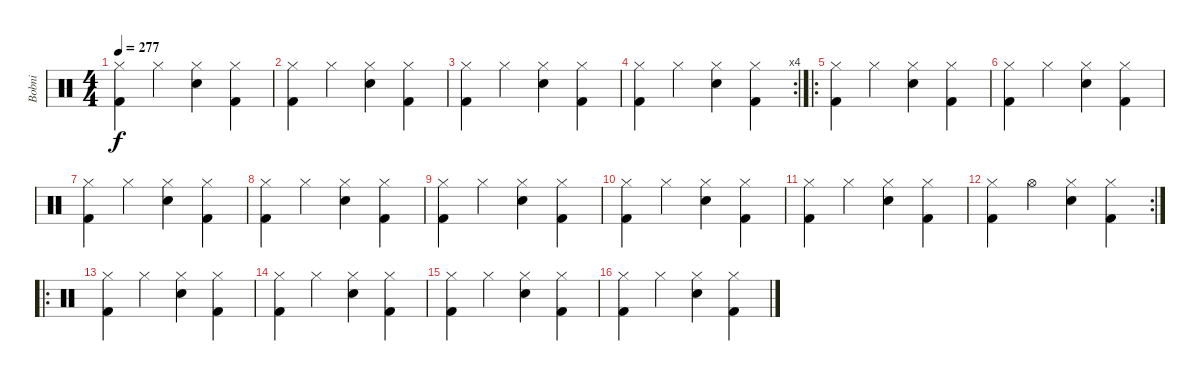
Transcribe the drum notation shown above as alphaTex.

\track ("Bobni" "Bobni") {instrument percussion}
\staff {score}
\articulation defaults
\ts (4 4)
\tempo 277
\clef neutral
\ks c
("Hi-Hat (closed)" "Kick (hit) 2").4{dy f} "Hi-Hat (closed)".4 ("Hi-Hat (closed)" "Snare (hit) 2").4 ("Hi-Hat (closed)" "Kick (hit) 2").4 |
("Hi-Hat (closed)" "Kick (hit) 2").4 "Hi-Hat (closed)".4 ("Hi-Hat (closed)" "Snare (hit) 2").4 ("Hi-Hat (closed)" "Kick (hit) 2").4 |
("Hi-Hat (closed)" "Kick (hit) 2").4 "Hi-Hat (closed)".4 ("Hi-Hat (closed)" "Snare (hit) 2").4 ("Hi-Hat (closed)" "Kick (hit) 2").4 |
\rc 4
("Hi-Hat (closed)" "Kick (hit) 2").4 "Hi-Hat (closed)".4 ("Hi-Hat (closed)" "Snare (hit) 2").4 ("Hi-Hat (closed)" "Kick (hit) 2").4 |
\ro
("Hi-Hat (closed)" "Kick (hit) 2").4 "Hi-Hat (closed)".4 ("Hi-Hat (closed)" "Snare (hit) 2").4 ("Hi-Hat (closed)" "Kick (hit) 2").4 |
("Hi-Hat (closed)" "Kick (hit) 2").4 "Hi-Hat (closed)".4 ("Hi-Hat (closed)" "Snare (hit) 2").4 ("Hi-Hat (closed)" "Kick (hit) 2").4 |
("Hi-Hat (closed)" "Kick (hit) 2").4 "Hi-Hat (closed)".4 ("Hi-Hat (closed)" "Snare (hit) 2").4 ("Hi-Hat (closed)" "Kick (hit) 2").4 |
("Hi-Hat (closed)" "Kick (hit) 2").4 "Hi-Hat (closed)".4 ("Hi-Hat (closed)" "Snare (hit) 2").4 ("Hi-Hat (closed)" "Kick (hit) 2").4 |
("Hi-Hat (closed)" "Kick (hit) 2").4 "Hi-Hat (closed)".4 ("Hi-Hat (closed)" "Snare (hit) 2").4 ("Hi-Hat (closed)" "Kick (hit) 2").4 |
("Hi-Hat (closed)" "Kick (hit) 2").4 "Hi-Hat (closed)".4 ("Hi-Hat (closed)" "Snare (hit) 2").4 ("Hi-Hat (closed)" "Kick (hit) 2").4 |
("Hi-Hat (closed)" "Kick (hit) 2").4 "Hi-Hat (closed)".4 ("Hi-Hat (closed)" "Snare (hit) 2").4 ("Hi-Hat (closed)" "Kick (hit) 2").4 |
\rc 2
("Hi-Hat (closed)" "Kick (hit) 2").4 "Hi-Hat (open)".4 ("Hi-Hat (closed)" "Snare (hit) 2").4 ("Hi-Hat (closed)" "Kick (hit) 2").4 |
\ro
("Hi-Hat (closed)" "Kick (hit) 2").4 "Hi-Hat (closed)".4 ("Hi-Hat (closed)" "Snare (hit) 2").4 ("Hi-Hat (closed)" "Kick (hit) 2").4 |
("Hi-Hat (closed)" "Kick (hit) 2").4 "Hi-Hat (closed)".4 ("Hi-Hat (closed)" "Snare (hit) 2").4 ("Hi-Hat (closed)" "Kick (hit) 2").4 |
("Hi-Hat (closed)" "Kick (hit) 2").4 "Hi-Hat (closed)".4 ("Hi-Hat (closed)" "Snare (hit) 2").4 ("Hi-Hat (closed)" "Kick (hit) 2").4 |
("Hi-Hat (closed)" "Kick (hit) 2").4 "Hi-Hat (closed)".4 ("Hi-Hat (closed)" "Snare (hit) 2").4 ("Hi-Hat (closed)" "Kick (hit) 2").4
